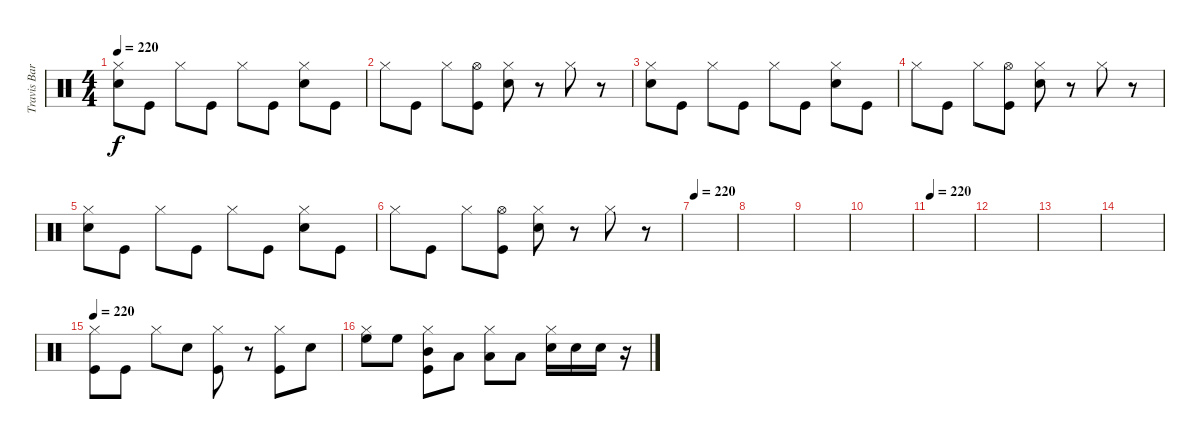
\track ("Travis Barker" "Travis Bar") {instrument percussion}
\staff {score}
\articulation defaults
\ts (4 4)
\tempo 220
\clef neutral
\ks c
("Electric Snare (hit)" "Hi-Hat (closed)").8{dy f} "Kick (hit)".8 "Hi-Hat (closed)".8 "Kick (hit)".8 "Hi-Hat (closed)".8 "Kick (hit)".8 ("Electric Snare (hit)" "Hi-Hat (closed)").8 "Kick (hit)".8 |
"Hi-Hat (closed)".8 "Kick (hit)".8 "Hi-Hat (closed)".8 ("Kick (hit)" "Hi-Hat (open)").8 ("Electric Snare (hit)" "Hi-Hat (closed)").8 r.8 "Hi-Hat (closed)".8 r.8 |
("Electric Snare (hit)" "Hi-Hat (closed)").8 "Kick (hit)".8 "Hi-Hat (closed)".8 "Kick (hit)".8 "Hi-Hat (closed)".8 "Kick (hit)".8 ("Electric Snare (hit)" "Hi-Hat (closed)").8 "Kick (hit)".8 |
"Hi-Hat (closed)".8 "Kick (hit)".8 "Hi-Hat (closed)".8 ("Kick (hit)" "Hi-Hat (open)").8 ("Electric Snare (hit)" "Hi-Hat (closed)").8 r.8 "Hi-Hat (closed)".8 r.8 |
("Electric Snare (hit)" "Hi-Hat (closed)").8 "Kick (hit)".8 "Hi-Hat (closed)".8 "Kick (hit)".8 "Hi-Hat (closed)".8 "Kick (hit)".8 ("Electric Snare (hit)" "Hi-Hat (closed)").8 "Kick (hit)".8 |
"Hi-Hat (closed)".8 "Kick (hit)".8 "Hi-Hat (closed)".8 ("Kick (hit)" "Hi-Hat (open)").8 ("Electric Snare (hit)" "Hi-Hat (closed)").8 r.8 "Hi-Hat (closed)".8 r.8 |
\tempo 220
|
|
|
|
\tempo 220
|
|
|
|
\tempo 220
("Kick (hit)" "Hi-Hat (closed)").8 "Kick (hit)".8 "Hi-Hat (closed)".8 "Electric Snare (hit)".8 ("Kick (hit)" "Hi-Hat (closed)").8 r.8 ("Kick (hit)" "Hi-Hat (closed)").8 "Electric Snare (hit)".8 |
("High Floor Tom (hit)" "Hi-Hat (closed)").8 "High Floor Tom (hit)".8 ("Kick (hit)" "Mid Tom (hit)" "Hi-Hat (closed)").8 "Low Tom (hit)".8 ("Low Floor Tom (hit)" "Hi-Hat (closed)").8 "Low Floor Tom (hit)".8 ("Electric Snare (hit)" "Hi-Hat (closed)").16 "Electric Snare (hit)".16 "Electric Snare (hit)".16 r.16
